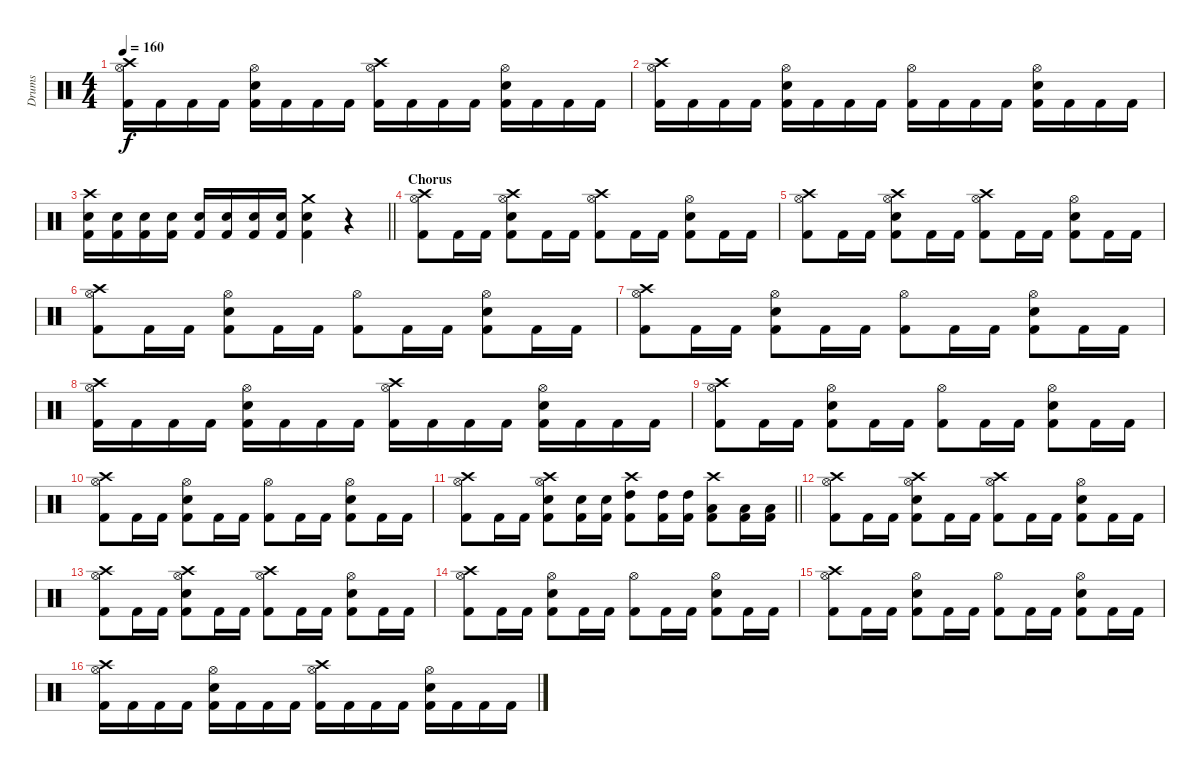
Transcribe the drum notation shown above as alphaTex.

\track ("Drums" "Drums") {instrument percussion}
\staff {score}
\articulation defaults
\ts (4 4)
\tempo 160
\clef neutral
\ks c
("Crash high (hit)" "Hi-Hat (open)" "Kick (hit) 2").16{dy f} "Kick (hit) 2".16 "Kick (hit) 2".16 "Kick (hit) 2".16 ("Hi-Hat (open)" "Snare (hit) 2" "Kick (hit) 2").16 "Kick (hit) 2".16 "Kick (hit) 2".16 "Kick (hit) 2".16 ("Crash high (hit)" "Hi-Hat (open)" "Kick (hit) 2").16 "Kick (hit) 2".16 "Kick (hit) 2".16 "Kick (hit) 2".16 ("Hi-Hat (open)" "Snare (hit) 2" "Kick (hit) 2").16 "Kick (hit) 2".16 "Kick (hit) 2".16 "Kick (hit) 2".16 |
("Crash high (hit)" "Hi-Hat (open)" "Kick (hit) 2").16 "Kick (hit) 2".16 "Kick (hit) 2".16 "Kick (hit) 2".16 ("Hi-Hat (open)" "Snare (hit) 2" "Kick (hit) 2").16 "Kick (hit) 2".16 "Kick (hit) 2".16 "Kick (hit) 2".16 ("Hi-Hat (open)" "Kick (hit) 2").16 "Kick (hit) 2".16 "Kick (hit) 2".16 "Kick (hit) 2".16 ("Hi-Hat (open)" "Snare (hit) 2" "Kick (hit) 2").16 "Kick (hit) 2".16 "Kick (hit) 2".16 "Kick (hit) 2".16 |
\barLineRight lightlight
("Crash high (hit)" "Snare (hit) 2" "Kick (hit) 2").16 ("Snare (hit) 2" "Kick (hit) 2").16 ("Snare (hit) 2" "Kick (hit) 2").16 ("Snare (hit) 2" "Kick (hit) 2").16 ("Snare (hit) 2" "Kick (hit) 2").16 ("Snare (hit) 2" "Kick (hit) 2").16 ("Snare (hit) 2" "Kick (hit) 2").16 ("Snare (hit) 2" "Kick (hit) 2").16 ("Crash medium (hit)" "Snare (hit) 2" "Kick (hit) 2").4 r.4 |
\section ("" "Chorus")
("Crash high (hit)" "Hi-Hat (open)" "Kick (hit) 2").8 "Kick (hit) 2".16 "Kick (hit) 2".16 ("Crash high (hit)" "Hi-Hat (open)" "Snare (hit) 2" "Kick (hit) 2").8 "Kick (hit) 2".16 "Kick (hit) 2".16 ("Crash high (hit)" "Hi-Hat (open)" "Kick (hit) 2").8 "Kick (hit) 2".16 "Kick (hit) 2".16 ("Hi-Hat (open)" "Snare (hit) 2" "Kick (hit) 2").8 "Kick (hit) 2".16 "Kick (hit) 2".16 |
("Crash high (hit)" "Hi-Hat (open)" "Kick (hit) 2").8 "Kick (hit) 2".16 "Kick (hit) 2".16 ("Crash high (hit)" "Hi-Hat (open)" "Snare (hit) 2" "Kick (hit) 2").8 "Kick (hit) 2".16 "Kick (hit) 2".16 ("Crash high (hit)" "Hi-Hat (open)" "Kick (hit) 2").8 "Kick (hit) 2".16 "Kick (hit) 2".16 ("Hi-Hat (open)" "Snare (hit) 2" "Kick (hit) 2").8 "Kick (hit) 2".16 "Kick (hit) 2".16 |
("Crash high (hit)" "Hi-Hat (open)" "Kick (hit) 2").8 "Kick (hit) 2".16 "Kick (hit) 2".16 ("Hi-Hat (open)" "Snare (hit) 2" "Kick (hit) 2").8 "Kick (hit) 2".16 "Kick (hit) 2".16 ("Hi-Hat (open)" "Kick (hit) 2").8 "Kick (hit) 2".16 "Kick (hit) 2".16 ("Hi-Hat (open)" "Snare (hit) 2" "Kick (hit) 2").8 "Kick (hit) 2".16 "Kick (hit) 2".16 |
("Crash high (hit)" "Hi-Hat (open)" "Kick (hit) 2").8 "Kick (hit) 2".16 "Kick (hit) 2".16 ("Hi-Hat (open)" "Snare (hit) 2" "Kick (hit) 2").8 "Kick (hit) 2".16 "Kick (hit) 2".16 ("Hi-Hat (open)" "Kick (hit) 2").8 "Kick (hit) 2".16 "Kick (hit) 2".16 ("Hi-Hat (open)" "Snare (hit) 2" "Kick (hit) 2").8 "Kick (hit) 2".16 "Kick (hit) 2".16 |
("Crash high (hit)" "Hi-Hat (open)" "Kick (hit) 2").16 "Kick (hit) 2".16 "Kick (hit) 2".16 "Kick (hit) 2".16 ("Hi-Hat (open)" "Snare (hit) 2" "Kick (hit) 2").16 "Kick (hit) 2".16 "Kick (hit) 2".16 "Kick (hit) 2".16 ("Crash high (hit)" "Hi-Hat (open)" "Kick (hit) 2").16 "Kick (hit) 2".16 "Kick (hit) 2".16 "Kick (hit) 2".16 ("Hi-Hat (open)" "Snare (hit) 2" "Kick (hit) 2").16 "Kick (hit) 2".16 "Kick (hit) 2".16 "Kick (hit) 2".16 |
("Crash high (hit)" "Hi-Hat (open)" "Kick (hit) 2").8 "Kick (hit) 2".16 "Kick (hit) 2".16 ("Hi-Hat (open)" "Snare (hit) 2" "Kick (hit) 2").8 "Kick (hit) 2".16 "Kick (hit) 2".16 ("Hi-Hat (open)" "Kick (hit) 2").8 "Kick (hit) 2".16 "Kick (hit) 2".16 ("Hi-Hat (open)" "Snare (hit) 2" "Kick (hit) 2").8 "Kick (hit) 2".16 "Kick (hit) 2".16 |
("Crash high (hit)" "Hi-Hat (open)" "Kick (hit) 2").8 "Kick (hit) 2".16 "Kick (hit) 2".16 ("Hi-Hat (open)" "Snare (hit) 2" "Kick (hit) 2").8 "Kick (hit) 2".16 "Kick (hit) 2".16 ("Hi-Hat (open)" "Kick (hit) 2").8 "Kick (hit) 2".16 "Kick (hit) 2".16 ("Hi-Hat (open)" "Snare (hit) 2" "Kick (hit) 2").8 "Kick (hit) 2".16 "Kick (hit) 2".16 |
\barLineRight lightlight
("Crash high (hit)" "Hi-Hat (open)" "Kick (hit) 2").8 "Kick (hit) 2".16 "Kick (hit) 2".16 ("Crash high (hit)" "Hi-Hat (open)" "Snare (hit) 2" "Kick (hit) 2").8 ("Snare (hit) 2" "Kick (hit) 2").16 ("Snare (hit) 2" "Kick (hit) 2").16 ("Crash high (hit)" "High Tom (hit)" "Kick (hit) 2").8 ("High Tom (hit)" "Kick (hit) 2").16 ("High Tom (hit)" "Kick (hit) 2").16 ("Crash high (hit)" "Low Tom (hit)" "Kick (hit) 2").8 ("Low Tom (hit)" "Kick (hit) 2").16 ("Low Tom (hit)" "Kick (hit) 2").16 |
("Crash high (hit)" "Hi-Hat (open)" "Kick (hit) 2").8 "Kick (hit) 2".16 "Kick (hit) 2".16 ("Crash high (hit)" "Hi-Hat (open)" "Snare (hit) 2" "Kick (hit) 2").8 "Kick (hit) 2".16 "Kick (hit) 2".16 ("Crash high (hit)" "Hi-Hat (open)" "Kick (hit) 2").8 "Kick (hit) 2".16 "Kick (hit) 2".16 ("Hi-Hat (open)" "Snare (hit) 2" "Kick (hit) 2").8 "Kick (hit) 2".16 "Kick (hit) 2".16 |
("Crash high (hit)" "Hi-Hat (open)" "Kick (hit) 2").8 "Kick (hit) 2".16 "Kick (hit) 2".16 ("Crash high (hit)" "Hi-Hat (open)" "Snare (hit) 2" "Kick (hit) 2").8 "Kick (hit) 2".16 "Kick (hit) 2".16 ("Crash high (hit)" "Hi-Hat (open)" "Kick (hit) 2").8 "Kick (hit) 2".16 "Kick (hit) 2".16 ("Hi-Hat (open)" "Snare (hit) 2" "Kick (hit) 2").8 "Kick (hit) 2".16 "Kick (hit) 2".16 |
("Crash high (hit)" "Hi-Hat (open)" "Kick (hit) 2").8 "Kick (hit) 2".16 "Kick (hit) 2".16 ("Hi-Hat (open)" "Snare (hit) 2" "Kick (hit) 2").8 "Kick (hit) 2".16 "Kick (hit) 2".16 ("Hi-Hat (open)" "Kick (hit) 2").8 "Kick (hit) 2".16 "Kick (hit) 2".16 ("Hi-Hat (open)" "Snare (hit) 2" "Kick (hit) 2").8 "Kick (hit) 2".16 "Kick (hit) 2".16 |
("Crash high (hit)" "Hi-Hat (open)" "Kick (hit) 2").8 "Kick (hit) 2".16 "Kick (hit) 2".16 ("Hi-Hat (open)" "Snare (hit) 2" "Kick (hit) 2").8 "Kick (hit) 2".16 "Kick (hit) 2".16 ("Hi-Hat (open)" "Kick (hit) 2").8 "Kick (hit) 2".16 "Kick (hit) 2".16 ("Hi-Hat (open)" "Snare (hit) 2" "Kick (hit) 2").8 "Kick (hit) 2".16 "Kick (hit) 2".16 |
("Crash high (hit)" "Hi-Hat (open)" "Kick (hit) 2").16 "Kick (hit) 2".16 "Kick (hit) 2".16 "Kick (hit) 2".16 ("Hi-Hat (open)" "Snare (hit) 2" "Kick (hit) 2").16 "Kick (hit) 2".16 "Kick (hit) 2".16 "Kick (hit) 2".16 ("Crash high (hit)" "Hi-Hat (open)" "Kick (hit) 2").16 "Kick (hit) 2".16 "Kick (hit) 2".16 "Kick (hit) 2".16 ("Hi-Hat (open)" "Snare (hit) 2" "Kick (hit) 2").16 "Kick (hit) 2".16 "Kick (hit) 2".16 "Kick (hit) 2".16
